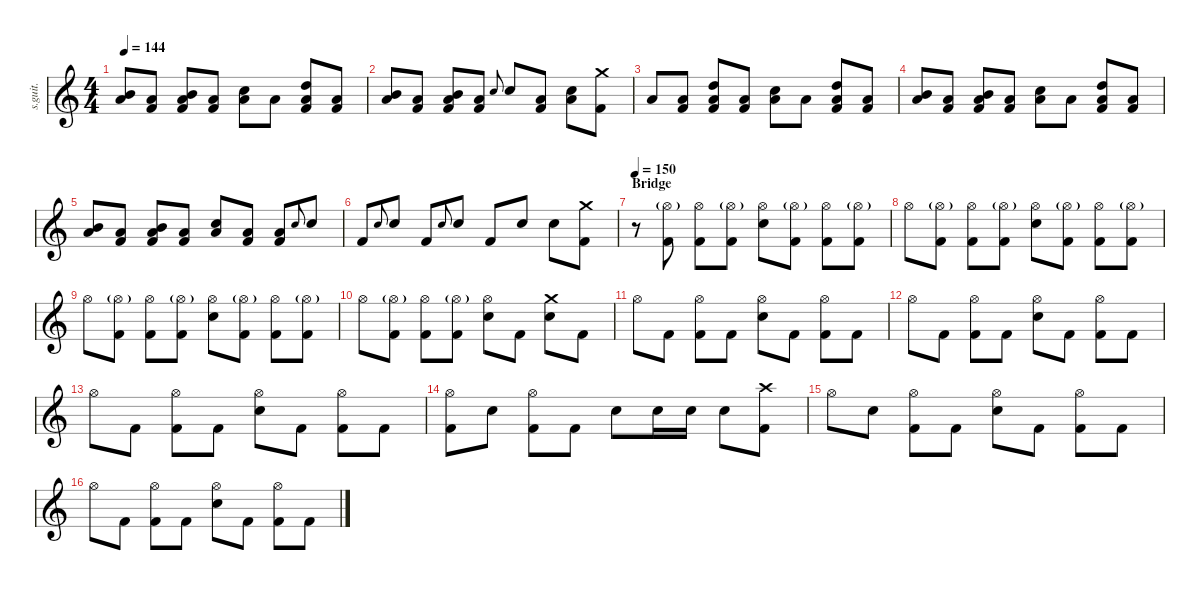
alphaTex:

\defaultSystemsLayout 4
\hideDynamics
\bracketExtendMode nobrackets
\track ("Joey Jordison RIP" "s.guit.") {instrument percussion}
\staff {score}
\articulation defaults
\ts (4 4)
\tempo 144
\clef g2
\ks c
("Mid Tom (hit)" "Low Floor Tom (hit)").8{dy fff} ("Kick (hit) 2" "Low Floor Tom (hit)").8 ("Kick (hit) 2" "Low Floor Tom (hit)" "Mid Tom (hit)").8 ("Kick (hit) 2" "Low Floor Tom (hit)").8 ("Low Floor Tom (hit)" "Snare (hit) 2").8 "Low Floor Tom (hit)".8 ("High Tom (hit)" "Kick (hit) 2" "Low Floor Tom (hit)").8 ("Kick (hit) 2" "Low Floor Tom (hit)").8 |
("Mid Tom (hit)" "Low Floor Tom (hit)").8 ("Kick (hit) 2" "Low Floor Tom (hit)").8 ("Kick (hit) 2" "Low Floor Tom (hit)" "Mid Tom (hit)").8 ("Kick (hit) 2" "Low Floor Tom (hit)").8 "Snare (hit) 2".8{gr onbeat} "Snare (hit) 2".8 ("Kick (hit) 2" "Low Floor Tom (hit)").8 ("Low Floor Tom (hit)" "Snare (hit) 2").8 ("Kick (hit) 2" "Crash medium (hit)").8 |
"Low Floor Tom (hit)".8 ("Kick (hit) 2" "Low Floor Tom (hit)").8 ("High Tom (hit)" "Kick (hit) 2" "Low Floor Tom (hit)").8 ("Kick (hit) 2" "Low Floor Tom (hit)").8 ("Low Floor Tom (hit)" "Snare (hit) 2").8 "Low Floor Tom (hit)".8 ("Kick (hit) 2" "Low Floor Tom (hit)" "High Tom (hit)").8 ("Kick (hit) 2" "Low Floor Tom (hit)").8 |
("Low Floor Tom (hit)" "Mid Tom (hit)").8 ("Kick (hit) 2" "Low Floor Tom (hit)").8 ("Kick (hit) 2" "Low Floor Tom (hit)" "Mid Tom (hit)").8 ("Kick (hit) 2" "Low Floor Tom (hit)").8 ("Low Floor Tom (hit)" "Snare (hit) 2").8 "Low Floor Tom (hit)".8 ("High Tom (hit)" "Kick (hit) 2" "Low Floor Tom (hit)").8 ("Kick (hit) 2" "Low Floor Tom (hit)").8 |
("Mid Tom (hit)" "Low Floor Tom (hit)").8 ("Kick (hit) 2" "Low Floor Tom (hit)").8 ("Kick (hit) 2" "Low Floor Tom (hit)" "Mid Tom (hit)").8 ("Kick (hit) 2" "Low Floor Tom (hit)").8 ("Low Floor Tom (hit)" "Snare (hit) 2").8 ("Low Floor Tom (hit)" "Kick (hit) 2").8 ("Kick (hit) 2" "Low Floor Tom (hit)").8 "Snare (hit) 2".8{gr onbeat} "Snare (hit) 2".8 |
"Kick (hit) 2".8 "Snare (hit) 2".8{gr onbeat} "Snare (hit) 2".8 "Kick (hit) 2".8 "Snare (hit) 2".8{gr onbeat} "Snare (hit) 2".8 "Kick (hit) 2".8 "Snare (hit) 2".8 "Snare (hit) 2".8 ("Crash medium (hit)" "Kick (hit) 2").8 |
\section ("" "Bridge")
\tempo 150
r.8 ("Hi-Hat (open)"{g} "Kick (hit) 2").8 ("Hi-Hat (open)" "Kick (hit) 2").8 ("Hi-Hat (open)"{g} "Kick (hit) 2").8 ("Hi-Hat (open)" "Snare (hit) 2").8 ("Hi-Hat (open)"{g} "Kick (hit) 2").8 ("Hi-Hat (open)" "Kick (hit) 2").8 ("Hi-Hat (open)"{g} "Kick (hit) 2").8 |
"Hi-Hat (open)".8 ("Hi-Hat (open)"{g} "Kick (hit) 2").8 ("Hi-Hat (open)" "Kick (hit) 2").8 ("Hi-Hat (open)"{g} "Kick (hit) 2").8 ("Hi-Hat (open)" "Snare (hit) 2").8 ("Hi-Hat (open)"{g} "Kick (hit) 2").8 ("Hi-Hat (open)" "Kick (hit) 2").8 ("Hi-Hat (open)"{g} "Kick (hit) 2").8 |
"Hi-Hat (open)".8 ("Hi-Hat (open)"{g} "Kick (hit) 2").8 ("Hi-Hat (open)" "Kick (hit) 2").8 ("Hi-Hat (open)"{g} "Kick (hit) 2").8 ("Hi-Hat (open)" "Snare (hit) 2").8 ("Hi-Hat (open)"{g} "Kick (hit) 2").8 ("Hi-Hat (open)" "Kick (hit) 2").8 ("Hi-Hat (open)"{g} "Kick (hit) 2").8 |
"Hi-Hat (open)".8 ("Hi-Hat (open)"{g} "Kick (hit) 2").8 ("Hi-Hat (open)" "Kick (hit) 2").8 ("Hi-Hat (open)"{g} "Kick (hit) 2").8 ("Hi-Hat (open)" "Snare (hit) 2").8 "Kick (hit) 2".8 ("Crash medium (hit)" "Snare (hit) 2").8 "Kick (hit) 2".8 |
"Hi-Hat (open)".8 "Kick (hit) 2".8 ("Hi-Hat (open)" "Kick (hit) 2").8 "Kick (hit) 2".8 ("Hi-Hat (open)" "Snare (hit) 2").8 "Kick (hit) 2".8 ("Hi-Hat (open)" "Kick (hit) 2").8 "Kick (hit) 2".8 |
"Hi-Hat (open)".8 "Kick (hit) 2".8 ("Hi-Hat (open)" "Kick (hit) 2").8 "Kick (hit) 2".8 ("Hi-Hat (open)" "Snare (hit) 2").8 "Kick (hit) 2".8 ("Hi-Hat (open)" "Kick (hit) 2").8 "Kick (hit) 2".8 |
"Hi-Hat (open)".8 "Kick (hit) 2".8 ("Hi-Hat (open)" "Kick (hit) 2").8 "Kick (hit) 2".8 ("Hi-Hat (open)" "Snare (hit) 2").8 "Kick (hit) 2".8 ("Hi-Hat (open)" "Kick (hit) 2").8 "Kick (hit) 2".8 |
("Hi-Hat (open)" "Kick (hit) 2").8 "Snare (hit) 2".8 ("Hi-Hat (open)" "Kick (hit) 2").8 "Kick (hit) 2".8 "Snare (hit) 2".8 "Snare (hit) 2".16 "Snare (hit) 2".16 "Snare (hit) 2".8 ("Crash high (hit)" "Kick (hit) 2").8 |
"Hi-Hat (open)".8 "Snare (hit) 2".8 ("Hi-Hat (open)" "Kick (hit) 2").8 "Kick (hit) 2".8 ("Hi-Hat (open)" "Snare (hit) 2").8 "Kick (hit) 2".8 ("Hi-Hat (open)" "Kick (hit) 2").8 "Kick (hit) 2".8 |
"Hi-Hat (open)".8 "Kick (hit) 2".8 ("Hi-Hat (open)" "Kick (hit) 2").8 "Kick (hit) 2".8 ("Hi-Hat (open)" "Snare (hit) 2").8 "Kick (hit) 2".8 ("Hi-Hat (open)" "Kick (hit) 2").8 "Kick (hit) 2".8
